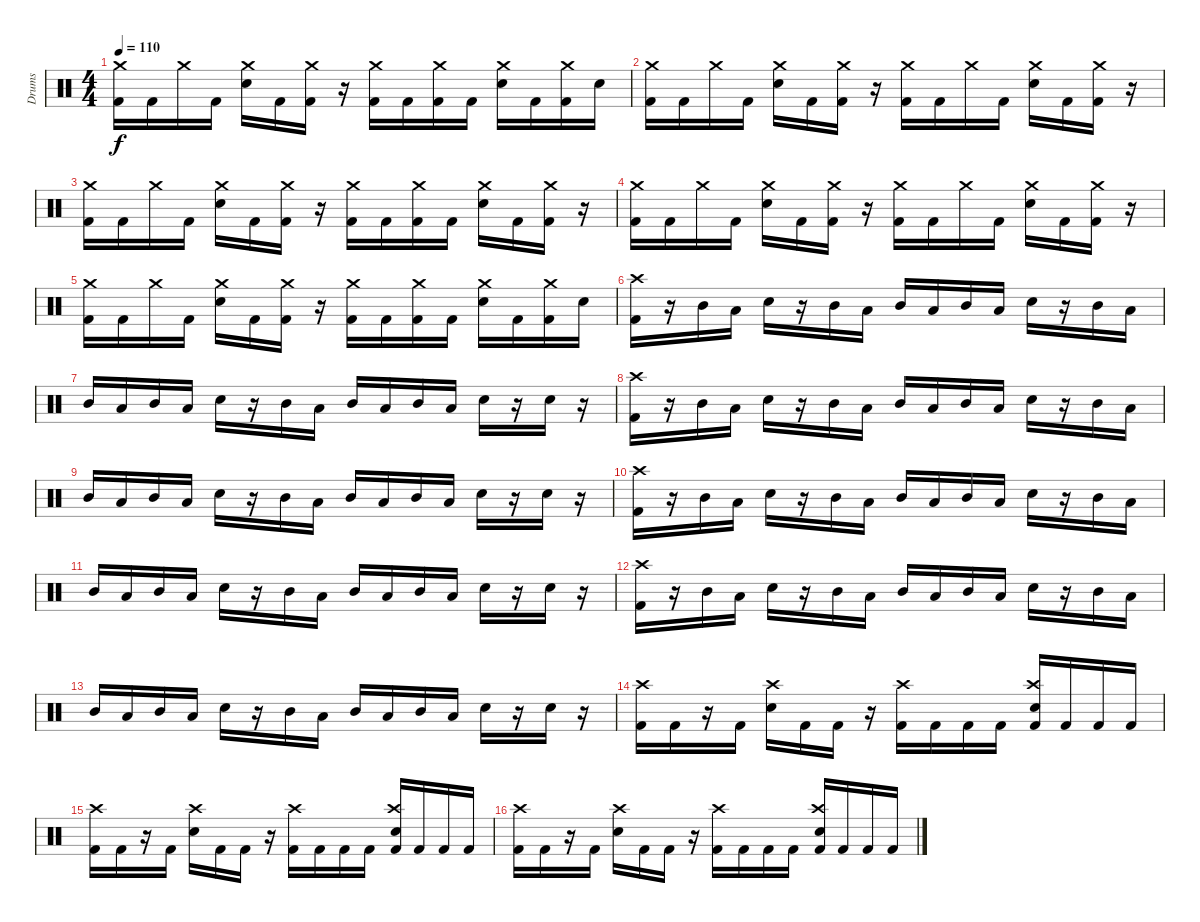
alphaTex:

\track ("Drums" "Drums") {instrument percussion}
\staff {score}
\articulation defaults
\ts (4 4)
\tempo 110
\clef neutral
\ks c
("Crash medium (hit)" "Kick (hit) 2").16{dy f} "Kick (hit) 2".16 "Crash medium (hit)".16 "Kick (hit) 2".16 ("Crash medium (hit)" "Snare (hit) 2").16 "Kick (hit) 2".16 ("Crash medium (hit)" "Kick (hit) 2").16 r.16 ("Crash medium (hit)" "Kick (hit) 2").16 "Kick (hit) 2".16 ("Crash medium (hit)" "Kick (hit) 2").16 "Kick (hit) 2".16 ("Crash medium (hit)" "Snare (hit) 2").16 "Kick (hit) 2".16 ("Crash medium (hit)" "Kick (hit) 2").16 "Snare (hit) 2".16 |
("Crash medium (hit)" "Kick (hit) 2").16 "Kick (hit) 2".16 "Crash medium (hit)".16 "Kick (hit) 2".16 ("Crash medium (hit)" "Snare (hit) 2").16 "Kick (hit) 2".16 ("Crash medium (hit)" "Kick (hit) 2").16 r.16 ("Crash medium (hit)" "Kick (hit) 2").16 "Kick (hit) 2".16 "Crash medium (hit)".16 "Kick (hit) 2".16 ("Crash medium (hit)" "Snare (hit) 2").16 "Kick (hit) 2".16 ("Crash medium (hit)" "Kick (hit) 2").16 r.16 |
("Crash medium (hit)" "Kick (hit) 2").16 "Kick (hit) 2".16 "Crash medium (hit)".16 "Kick (hit) 2".16 ("Crash medium (hit)" "Snare (hit) 2").16 "Kick (hit) 2".16 ("Crash medium (hit)" "Kick (hit) 2").16 r.16 ("Crash medium (hit)" "Kick (hit) 2").16 "Kick (hit) 2".16 ("Crash medium (hit)" "Kick (hit) 2").16 "Kick (hit) 2".16 ("Crash medium (hit)" "Snare (hit) 2").16 "Kick (hit) 2".16 ("Crash medium (hit)" "Kick (hit) 2").16 r.16 |
("Crash medium (hit)" "Kick (hit) 2").16 "Kick (hit) 2".16 "Crash medium (hit)".16 "Kick (hit) 2".16 ("Crash medium (hit)" "Snare (hit) 2").16 "Kick (hit) 2".16 ("Crash medium (hit)" "Kick (hit) 2").16 r.16 ("Crash medium (hit)" "Kick (hit) 2").16 "Kick (hit) 2".16 "Crash medium (hit)".16 "Kick (hit) 2".16 ("Crash medium (hit)" "Snare (hit) 2").16 "Kick (hit) 2".16 ("Crash medium (hit)" "Kick (hit) 2").16 r.16 |
("Crash medium (hit)" "Kick (hit) 2").16 "Kick (hit) 2".16 "Crash medium (hit)".16 "Kick (hit) 2".16 ("Crash medium (hit)" "Snare (hit) 2").16 "Kick (hit) 2".16 ("Crash medium (hit)" "Kick (hit) 2").16 r.16 ("Crash medium (hit)" "Kick (hit) 2").16 "Kick (hit) 2".16 ("Crash medium (hit)" "Kick (hit) 2").16 "Kick (hit) 2".16 ("Crash medium (hit)" "Snare (hit) 2").16 "Kick (hit) 2".16 ("Crash medium (hit)" "Kick (hit) 2").16 "Snare (hit) 2".16 |
("Crash high (hit)" "Kick (hit) 2").16 r.16 "Mid Tom (hit)".16 "Low Tom (hit)".16 "Electric Snare (hit)".16 r.16 "Mid Tom (hit)".16 "Low Tom (hit)".16 "Mid Tom (hit)".16 "Low Tom (hit)".16 "Mid Tom (hit)".16 "Low Tom (hit)".16 "Electric Snare (hit)".16 r.16 "Mid Tom (hit)".16 "Low Tom (hit)".16 |
"Mid Tom (hit)".16 "Low Tom (hit)".16 "Mid Tom (hit)".16 "Low Tom (hit)".16 "Electric Snare (hit)".16 r.16 "Mid Tom (hit)".16 "Low Tom (hit)".16 "Mid Tom (hit)".16 "Low Tom (hit)".16 "Mid Tom (hit)".16 "Low Tom (hit)".16 "Electric Snare (hit)".16 r.16 "Electric Snare (hit)".16 r.16 |
("Crash high (hit)" "Kick (hit) 2").16 r.16 "Mid Tom (hit)".16 "Low Tom (hit)".16 "Electric Snare (hit)".16 r.16 "Mid Tom (hit)".16 "Low Tom (hit)".16 "Mid Tom (hit)".16 "Low Tom (hit)".16 "Mid Tom (hit)".16 "Low Tom (hit)".16 "Electric Snare (hit)".16 r.16 "Mid Tom (hit)".16 "Low Tom (hit)".16 |
"Mid Tom (hit)".16 "Low Tom (hit)".16 "Mid Tom (hit)".16 "Low Tom (hit)".16 "Electric Snare (hit)".16 r.16 "Mid Tom (hit)".16 "Low Tom (hit)".16 "Mid Tom (hit)".16 "Low Tom (hit)".16 "Mid Tom (hit)".16 "Low Tom (hit)".16 "Electric Snare (hit)".16 r.16 "Electric Snare (hit)".16 r.16 |
("Crash high (hit)" "Kick (hit) 2").16 r.16 "Mid Tom (hit)".16 "Low Tom (hit)".16 "Electric Snare (hit)".16 r.16 "Mid Tom (hit)".16 "Low Tom (hit)".16 "Mid Tom (hit)".16 "Low Tom (hit)".16 "Mid Tom (hit)".16 "Low Tom (hit)".16 "Electric Snare (hit)".16 r.16 "Mid Tom (hit)".16 "Low Tom (hit)".16 |
"Mid Tom (hit)".16 "Low Tom (hit)".16 "Mid Tom (hit)".16 "Low Tom (hit)".16 "Electric Snare (hit)".16 r.16 "Mid Tom (hit)".16 "Low Tom (hit)".16 "Mid Tom (hit)".16 "Low Tom (hit)".16 "Mid Tom (hit)".16 "Low Tom (hit)".16 "Electric Snare (hit)".16 r.16 "Electric Snare (hit)".16 r.16 |
("Crash high (hit)" "Kick (hit) 2").16 r.16 "Mid Tom (hit)".16 "Low Tom (hit)".16 "Electric Snare (hit)".16 r.16 "Mid Tom (hit)".16 "Low Tom (hit)".16 "Mid Tom (hit)".16 "Low Tom (hit)".16 "Mid Tom (hit)".16 "Low Tom (hit)".16 "Electric Snare (hit)".16 r.16 "Mid Tom (hit)".16 "Low Tom (hit)".16 |
"Mid Tom (hit)".16 "Low Tom (hit)".16 "Mid Tom (hit)".16 "Low Tom (hit)".16 "Electric Snare (hit)".16 r.16 "Mid Tom (hit)".16 "Low Tom (hit)".16 "Mid Tom (hit)".16 "Low Tom (hit)".16 "Mid Tom (hit)".16 "Low Tom (hit)".16 "Electric Snare (hit)".16 r.16 "Electric Snare (hit)".16 r.16 |
("Crash high (hit)" "Kick (hit) 2").16 "Kick (hit) 2".16 r.16 "Kick (hit) 2".16 ("Crash high (hit)" "Electric Snare (hit)").16 "Kick (hit) 2".16 "Kick (hit) 2".16 r.16 ("Crash high (hit)" "Kick (hit) 2").16 "Kick (hit) 2".16 "Kick (hit) 2".16 "Kick (hit) 2".16 ("Crash high (hit)" "Electric Snare (hit)" "Kick (hit) 2").16 "Kick (hit) 2".16 "Kick (hit) 2".16 "Kick (hit) 2".16 |
("Crash high (hit)" "Kick (hit) 2").16 "Kick (hit) 2".16 r.16 "Kick (hit) 2".16 ("Crash high (hit)" "Electric Snare (hit)").16 "Kick (hit) 2".16 "Kick (hit) 2".16 r.16 ("Crash high (hit)" "Kick (hit) 2").16 "Kick (hit) 2".16 "Kick (hit) 2".16 "Kick (hit) 2".16 ("Crash high (hit)" "Electric Snare (hit)" "Kick (hit) 2").16 "Kick (hit) 2".16 "Kick (hit) 2".16 "Kick (hit) 2".16 |
("Crash high (hit)" "Kick (hit) 2").16 "Kick (hit) 2".16 r.16 "Kick (hit) 2".16 ("Crash high (hit)" "Electric Snare (hit)").16 "Kick (hit) 2".16 "Kick (hit) 2".16 r.16 ("Crash high (hit)" "Kick (hit) 2").16 "Kick (hit) 2".16 "Kick (hit) 2".16 "Kick (hit) 2".16 ("Crash high (hit)" "Electric Snare (hit)" "Kick (hit) 2").16 "Kick (hit) 2".16 "Kick (hit) 2".16 "Kick (hit) 2".16
